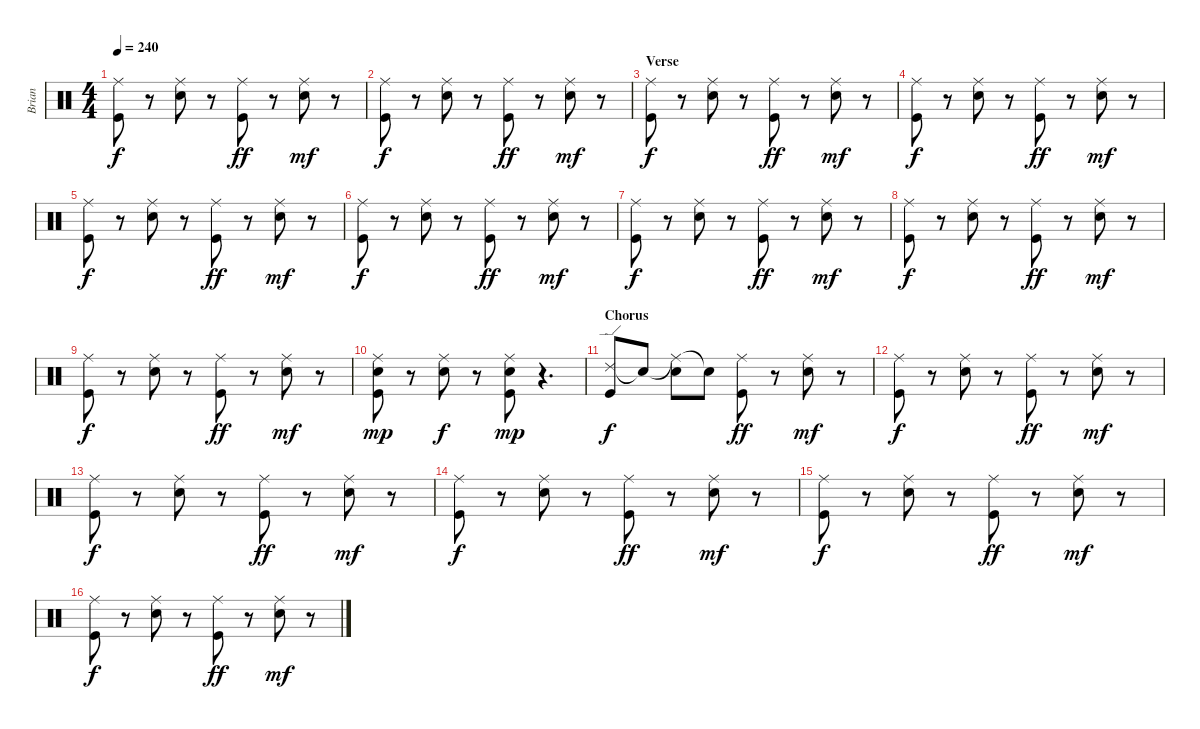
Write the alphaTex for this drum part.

\track ("Brian" "Brian") {instrument percussion}
\staff {score}
\articulation defaults
\ts (4 4)
\tempo 240
\clef neutral
\ks c
("Ride (middle)" "Kick (hit)").8{dy f} r.8 ("Ride (middle)" "Snare (hit) 2").8 r.8 ("Ride (middle)" "Kick (hit)").8{dy ff} r.8 ("Ride (middle)" "Snare (hit) 2").8{dy mf} r.8 |
("Ride (middle)" "Kick (hit)").8{dy f} r.8 ("Ride (middle)" "Snare (hit) 2").8 r.8 ("Ride (middle)" "Kick (hit)").8{dy ff} r.8 ("Ride (middle)" "Snare (hit) 2").8{dy mf} r.8 |
\section ("" "Verse")
("Ride (middle)" "Kick (hit)").8{dy f} r.8 ("Ride (middle)" "Snare (hit) 2").8 r.8 ("Ride (middle)" "Kick (hit)").8{dy ff} r.8 ("Ride (middle)" "Snare (hit) 2").8{dy mf} r.8 |
("Ride (middle)" "Kick (hit)").8{dy f} r.8 ("Ride (middle)" "Snare (hit) 2").8 r.8 ("Ride (middle)" "Kick (hit)").8{dy ff} r.8 ("Ride (middle)" "Snare (hit) 2").8{dy mf} r.8 |
("Ride (middle)" "Kick (hit)").8{dy f} r.8 ("Ride (middle)" "Snare (hit) 2").8 r.8 ("Ride (middle)" "Kick (hit)").8{dy ff} r.8 ("Ride (middle)" "Snare (hit) 2").8{dy mf} r.8 |
("Ride (middle)" "Kick (hit)").8{dy f} r.8 ("Ride (middle)" "Snare (hit) 2").8 r.8 ("Ride (middle)" "Kick (hit)").8{dy ff} r.8 ("Ride (middle)" "Snare (hit) 2").8{dy mf} r.8 |
("Ride (middle)" "Kick (hit)").8{dy f} r.8 ("Ride (middle)" "Snare (hit) 2").8 r.8 ("Ride (middle)" "Kick (hit)").8{dy ff} r.8 ("Ride (middle)" "Snare (hit) 2").8{dy mf} r.8 |
("Ride (middle)" "Kick (hit)").8{dy f} r.8 ("Ride (middle)" "Snare (hit) 2").8 r.8 ("Ride (middle)" "Kick (hit)").8{dy ff} r.8 ("Ride (middle)" "Snare (hit) 2").8{dy mf} r.8 |
("Ride (middle)" "Kick (hit)").8{dy f} r.8 ("Ride (middle)" "Snare (hit) 2").8 r.8 ("Ride (middle)" "Kick (hit)").8{dy ff} r.8 ("Ride (middle)" "Snare (hit) 2").8{dy mf} r.8 |
("Ride (middle)" "Snare (hit) 2" "Kick (hit)").8{dy mp} r.8 ("Ride (middle)" "Snare (hit) 2").8{dy f} r.8 ("Ride (middle)" "Snare (hit) 2" "Kick (hit)").8{dy mp} r.4{d} |
\section ("" "Chorus")
("Ride (edge) 2" "Kick (hit)").8{dy f} "Snare (hit)"{t}.8 ("Ride (middle)"{t} "Snare (hit) 2").8 "Snare (hit)"{t}.8 ("Ride (middle)" "Kick (hit)").8{dy ff} r.8 ("Ride (middle)" "Snare (hit) 2").8{dy mf} r.8 |
("Ride (middle)" "Kick (hit)").8{dy f} r.8 ("Ride (middle)" "Snare (hit) 2").8 r.8 ("Ride (middle)" "Kick (hit)").8{dy ff} r.8 ("Ride (middle)" "Snare (hit) 2").8{dy mf} r.8 |
("Ride (middle)" "Kick (hit)").8{dy f} r.8 ("Ride (middle)" "Snare (hit) 2").8 r.8 ("Ride (middle)" "Kick (hit)").8{dy ff} r.8 ("Ride (middle)" "Snare (hit) 2").8{dy mf} r.8 |
("Ride (middle)" "Kick (hit)").8{dy f} r.8 ("Ride (middle)" "Snare (hit) 2").8 r.8 ("Ride (middle)" "Kick (hit)").8{dy ff} r.8 ("Ride (middle)" "Snare (hit) 2").8{dy mf} r.8 |
("Ride (middle)" "Kick (hit)").8{dy f} r.8 ("Ride (middle)" "Snare (hit) 2").8 r.8 ("Ride (middle)" "Kick (hit)").8{dy ff} r.8 ("Ride (middle)" "Snare (hit) 2").8{dy mf} r.8 |
("Ride (middle)" "Kick (hit)").8{dy f} r.8 ("Ride (middle)" "Snare (hit) 2").8 r.8 ("Ride (middle)" "Kick (hit)").8{dy ff} r.8 ("Ride (middle)" "Snare (hit) 2").8{dy mf} r.8
